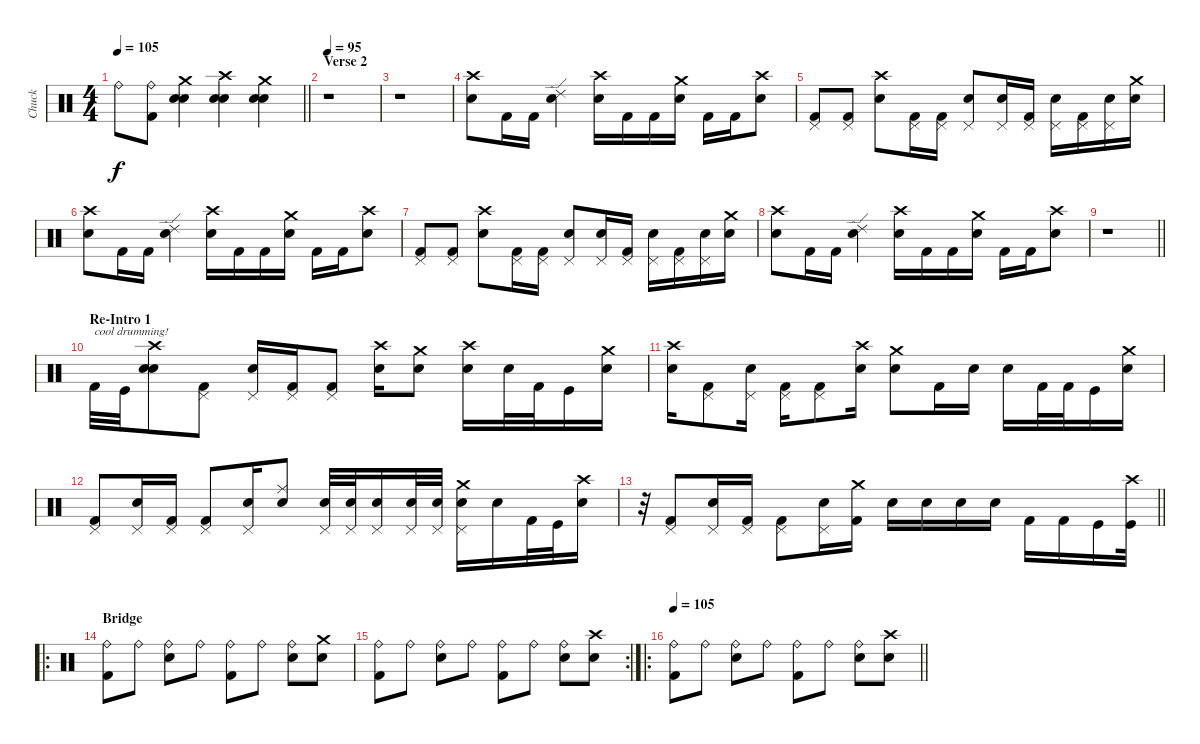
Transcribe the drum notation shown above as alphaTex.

\track ("Chuck" "Chuck") {instrument percussion}
\staff {score}
\articulation defaults
\ts (4 4)
\tempo 105
\clef neutral
\barLineRight lightlight
\ks c "Ride (bell)".8{dy f}
("Ride (bell)" "Kick (hit) 2").8 ("Crash medium (hit)" "Electric Snare (hit)" "Electric Snare (hit)").4 ("Crash high (hit)" "Snare (hit) 2" "Snare (hit) 2").4 ("Crash medium (hit)" "Snare (hit) 2" "Snare (hit) 2").4 |
\section ("" "Verse 2")
\tempo 95
r.1 |
r.1 |
("Crash high (hit)" "Snare (hit) 2").8 "Kick (hit) 2".16 "Kick (hit) 2".16 ("Ride (edge) 2" "Electric Snare (hit)").4 ("Crash high (hit)" "Snare (hit) 2").16 "Kick (hit) 2".16 "Kick (hit) 2".16 ("Crash medium (hit)" "Snare (hit) 2").16 "Kick (hit) 2".16 "Kick (hit) 2".16 ("Crash high (hit)" "Snare (hit) 2").8 |
("Pedal Hi-Hat (hit)" "Kick (hit) 2").8 ("Pedal Hi-Hat (hit)" "Kick (hit) 2").8 ("Crash high (hit)" "Snare (hit) 2").8 ("Pedal Hi-Hat (hit)" "Kick (hit) 2").16 ("Pedal Hi-Hat (hit)" "Kick (hit) 2").16 ("Pedal Hi-Hat (hit)" "Snare (hit) 2").8 ("Pedal Hi-Hat (hit)" "Snare (hit) 2").16 ("Pedal Hi-Hat (hit)" "Kick (hit) 2").16 ("Pedal Hi-Hat (hit)" "Snare (hit) 2").16 ("Pedal Hi-Hat (hit)" "Kick (hit) 2").16 ("Pedal Hi-Hat (hit)" "Electric Snare (hit)").16 ("Crash medium (hit)" "Electric Snare (hit)").16 |
("Crash high (hit)" "Snare (hit) 2").8 "Kick (hit) 2".16 "Kick (hit) 2".16 ("Ride (edge) 2" "Electric Snare (hit)").4 ("Crash high (hit)" "Snare (hit) 2").16 "Kick (hit) 2".16 "Kick (hit) 2".16 ("Crash medium (hit)" "Snare (hit) 2").16 "Kick (hit) 2".16 "Kick (hit) 2".16 ("Crash high (hit)" "Snare (hit) 2").8 |
("Pedal Hi-Hat (hit)" "Kick (hit) 2").8 ("Pedal Hi-Hat (hit)" "Kick (hit) 2").8 ("Crash high (hit)" "Snare (hit) 2").8 ("Pedal Hi-Hat (hit)" "Kick (hit) 2").16 ("Pedal Hi-Hat (hit)" "Kick (hit) 2").16 ("Pedal Hi-Hat (hit)" "Snare (hit) 2").8 ("Pedal Hi-Hat (hit)" "Snare (hit) 2").16 ("Pedal Hi-Hat (hit)" "Kick (hit) 2").16 ("Pedal Hi-Hat (hit)" "Snare (hit) 2").16 ("Pedal Hi-Hat (hit)" "Kick (hit) 2").16 ("Pedal Hi-Hat (hit)" "Electric Snare (hit)").16 ("Crash medium (hit)" "Electric Snare (hit)").16 |
("Crash high (hit)" "Snare (hit) 2").8 "Kick (hit) 2".16 "Kick (hit) 2".16 ("Ride (edge) 2" "Electric Snare (hit)").4 ("Crash high (hit)" "Snare (hit) 2").16 "Kick (hit) 2".16 "Kick (hit) 2".16 ("Crash medium (hit)" "Snare (hit) 2").16 "Kick (hit) 2".16 "Kick (hit) 2".16 ("Crash high (hit)" "Snare (hit) 2").8 |
\barLineRight lightlight
r.1 |
\section ("" "Re-Intro 1")
"Kick (hit) 2".32{txt "cool drumming!"} "Kick (hit)".32 ("Crash high (hit)" "Electric Snare (hit)" "Electric Snare (hit)").8 ("Pedal Hi-Hat (hit)" "Kick (hit) 2").8 ("Pedal Hi-Hat (hit)" "Snare (hit) 2").16 ("Pedal Hi-Hat (hit)" "Kick (hit) 2").16 ("Pedal Hi-Hat (hit)" "Kick (hit) 2").8 ("Crash high (hit)" "Snare (hit) 2").16 ("Crash medium (hit)" "Electric Snare (hit)").8 ("Crash high (hit)" "Electric Snare (hit)").16 "Electric Snare (hit)".32 "Kick (hit) 2".32 "Kick (hit)".16 ("Crash medium (hit)" "Snare (hit) 2").16 |
("Crash high (hit)" "Electric Snare (hit)").16 ("Pedal Hi-Hat (hit)" "Kick (hit) 2").8 ("Pedal Hi-Hat (hit)" "Snare (hit) 2").16 ("Pedal Hi-Hat (hit)" "Kick (hit) 2").16 ("Pedal Hi-Hat (hit)" "Kick (hit) 2").8 ("Crash high (hit)" "Snare (hit) 2").16 ("Crash medium (hit)" "Electric Snare (hit)").8 "Kick (hit) 2".16 "Snare (hit) 2".16 "Snare (hit) 2".16 "Kick (hit) 2".32 "Kick (hit) 2".32 "Kick (hit)".16 ("Crash medium (hit)" "Snare (hit) 2").16 |
("Pedal Hi-Hat (hit)" "Kick (hit) 2").8 ("Pedal Hi-Hat (hit)" "Snare (hit) 2").16 ("Pedal Hi-Hat (hit)" "Kick (hit) 2").16 ("Pedal Hi-Hat (hit)" "Kick (hit) 2").8 ("Pedal Hi-Hat (hit)" "Snare (hit) 2").16 ("Ride (middle)" "Electric Snare (hit)").8 ("Pedal Hi-Hat (hit)" "Snare (hit) 2").32 ("Pedal Hi-Hat (hit)" "Snare (hit) 2").32 ("Pedal Hi-Hat (hit)" "Snare (hit) 2").16 ("Pedal Hi-Hat (hit)" "Snare (hit) 2").32 ("Pedal Hi-Hat (hit)" "Snare (hit) 2").32 ("Pedal Hi-Hat (hit)" "Crash medium (hit)" "Snare (hit) 2").16 "Snare (hit) 2".16 "Kick (hit) 2".32 "Kick (hit)".32 ("Crash high (hit)" "Electric Snare (hit)").16 |
\barLineRight lightlight
r.32 ("Pedal Hi-Hat (hit)" "Kick (hit) 2").8 ("Pedal Hi-Hat (hit)" "Snare (hit) 2").16 ("Pedal Hi-Hat (hit)" "Kick (hit) 2").16 ("Pedal Hi-Hat (hit)" "Kick (hit) 2").8 ("Pedal Hi-Hat (hit)" "Snare (hit) 2").16 ("Crash medium (hit)" "Kick (hit) 2").16 "Electric Snare (hit)".16 "Electric Snare (hit)".16 "Snare (hit) 2".16 "Snare (hit) 2".16 "Kick (hit) 2".16 "Kick (hit) 2".16 "Kick (hit)".16 ("Crash high (hit)" "Kick (hit)").32 |
\ro
\section ("" "Bridge")
("Ride (bell)" "Kick (hit) 2").8 "Ride (bell)".8 ("Ride (bell)" "Snare (hit) 2").8 "Ride (bell)".8 ("Ride (bell)" "Kick (hit) 2").8 "Ride (bell)".8 ("Ride (bell)" "Snare (hit) 2").8 ("Crash medium (hit)" "Snare (hit) 2").8 |
\rc 2
("Ride (bell)" "Kick (hit) 2").8 "Ride (bell)".8 ("Ride (bell)" "Snare (hit) 2").8 "Ride (bell)".8 ("Ride (bell)" "Kick (hit) 2").8 "Ride (bell)".8 ("Ride (bell)" "Snare (hit) 2").8 ("Crash high (hit)" "Snare (hit) 2").8 |
\ro
\tempo 105
\barLineRight lightlight
("Ride (bell)" "Kick (hit) 2").8 "Ride (bell)".8 ("Ride (bell)" "Snare (hit) 2").8 "Ride (bell)".8 ("Ride (bell)" "Kick (hit) 2").8 "Ride (bell)".8 ("Ride (bell)" "Snare (hit) 2").8 ("Crash high (hit)" "Snare (hit) 2").8
